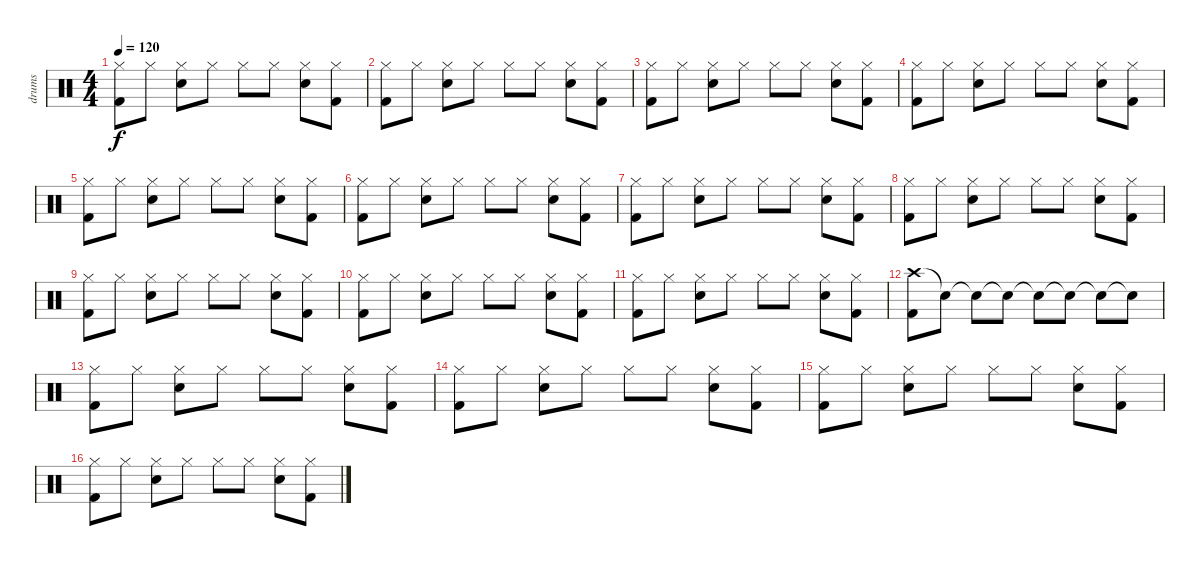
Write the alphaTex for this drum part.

\track ("drums" "drums") {instrument percussion}
\staff {score}
\articulation defaults
\ts (4 4)
\tempo 120
\clef neutral
\ks c
("Kick (hit) 2" "Hi-Hat (closed)").8{dy f} "Hi-Hat (closed)".8 ("Hi-Hat (closed)" "Snare (hit) 2").8 "Hi-Hat (closed)".8 "Hi-Hat (closed)".8 "Hi-Hat (closed)".8 ("Snare (hit) 2" "Hi-Hat (closed)").8 ("Hi-Hat (closed)" "Kick (hit) 2").8 |
("Kick (hit) 2" "Hi-Hat (closed)").8 "Hi-Hat (closed)".8 ("Hi-Hat (closed)" "Snare (hit) 2").8 "Hi-Hat (closed)".8 "Hi-Hat (closed)".8 "Hi-Hat (closed)".8 ("Snare (hit) 2" "Hi-Hat (closed)").8 ("Hi-Hat (closed)" "Kick (hit) 2").8 |
("Kick (hit) 2" "Hi-Hat (closed)").8 "Hi-Hat (closed)".8 ("Hi-Hat (closed)" "Snare (hit) 2").8 "Hi-Hat (closed)".8 "Hi-Hat (closed)".8 "Hi-Hat (closed)".8 ("Snare (hit) 2" "Hi-Hat (closed)").8 ("Hi-Hat (closed)" "Kick (hit) 2").8 |
("Kick (hit) 2" "Hi-Hat (closed)").8 "Hi-Hat (closed)".8 ("Hi-Hat (closed)" "Snare (hit) 2").8 "Hi-Hat (closed)".8 "Hi-Hat (closed)".8 "Hi-Hat (closed)".8 ("Snare (hit) 2" "Hi-Hat (closed)").8 ("Hi-Hat (closed)" "Kick (hit) 2").8 |
("Kick (hit) 2" "Hi-Hat (closed)").8 "Hi-Hat (closed)".8 ("Hi-Hat (closed)" "Snare (hit) 2").8 "Hi-Hat (closed)".8 "Hi-Hat (closed)".8 "Hi-Hat (closed)".8 ("Snare (hit) 2" "Hi-Hat (closed)").8 ("Hi-Hat (closed)" "Kick (hit) 2").8 |
("Kick (hit) 2" "Hi-Hat (closed)").8 "Hi-Hat (closed)".8 ("Hi-Hat (closed)" "Snare (hit) 2").8 "Hi-Hat (closed)".8 "Hi-Hat (closed)".8 "Hi-Hat (closed)".8 ("Snare (hit) 2" "Hi-Hat (closed)").8 ("Hi-Hat (closed)" "Kick (hit) 2").8 |
("Kick (hit) 2" "Hi-Hat (closed)").8 "Hi-Hat (closed)".8 ("Hi-Hat (closed)" "Snare (hit) 2").8 "Hi-Hat (closed)".8 "Hi-Hat (closed)".8 "Hi-Hat (closed)".8 ("Snare (hit) 2" "Hi-Hat (closed)").8 ("Hi-Hat (closed)" "Kick (hit) 2").8 |
("Kick (hit) 2" "Hi-Hat (closed)").8 "Hi-Hat (closed)".8 ("Hi-Hat (closed)" "Snare (hit) 2").8 "Hi-Hat (closed)".8 "Hi-Hat (closed)".8 "Hi-Hat (closed)".8 ("Snare (hit) 2" "Hi-Hat (closed)").8 ("Hi-Hat (closed)" "Kick (hit) 2").8 |
("Kick (hit) 2" "Hi-Hat (closed)").8 "Hi-Hat (closed)".8 ("Hi-Hat (closed)" "Snare (hit) 2").8 "Hi-Hat (closed)".8 "Hi-Hat (closed)".8 "Hi-Hat (closed)".8 ("Snare (hit) 2" "Hi-Hat (closed)").8 ("Hi-Hat (closed)" "Kick (hit) 2").8 |
("Kick (hit) 2" "Hi-Hat (closed)").8 "Hi-Hat (closed)".8 ("Hi-Hat (closed)" "Snare (hit) 2").8 "Hi-Hat (closed)".8 "Hi-Hat (closed)".8 "Hi-Hat (closed)".8 ("Snare (hit) 2" "Hi-Hat (closed)").8 ("Hi-Hat (closed)" "Kick (hit) 2").8 |
("Kick (hit) 2" "Hi-Hat (closed)").8 "Hi-Hat (closed)".8 ("Hi-Hat (closed)" "Snare (hit) 2").8 "Hi-Hat (closed)".8 "Hi-Hat (closed)".8 "Hi-Hat (closed)".8 ("Snare (hit) 2" "Hi-Hat (closed)").8 ("Hi-Hat (closed)" "Kick (hit) 2").8 |
("Crash high (hit)" "Kick (hit) 2").8 "Snare (hit)"{t}.8 "Snare (hit)"{t}.8 "Snare (hit)"{t}.8 "Snare (hit)"{t}.8 "Snare (hit)"{t}.8 "Snare (hit)"{t}.8 "Snare (hit)"{t}.8 |
("Kick (hit) 2" "Hi-Hat (closed)").8 "Hi-Hat (closed)".8 ("Hi-Hat (closed)" "Snare (hit) 2").8 "Hi-Hat (closed)".8 "Hi-Hat (closed)".8 "Hi-Hat (closed)".8 ("Snare (hit) 2" "Hi-Hat (closed)").8 ("Hi-Hat (closed)" "Kick (hit) 2").8 |
("Kick (hit) 2" "Hi-Hat (closed)").8 "Hi-Hat (closed)".8 ("Hi-Hat (closed)" "Snare (hit) 2").8 "Hi-Hat (closed)".8 "Hi-Hat (closed)".8 "Hi-Hat (closed)".8 ("Snare (hit) 2" "Hi-Hat (closed)").8 ("Hi-Hat (closed)" "Kick (hit) 2").8 |
("Kick (hit) 2" "Hi-Hat (closed)").8 "Hi-Hat (closed)".8 ("Hi-Hat (closed)" "Snare (hit) 2").8 "Hi-Hat (closed)".8 "Hi-Hat (closed)".8 "Hi-Hat (closed)".8 ("Snare (hit) 2" "Hi-Hat (closed)").8 ("Hi-Hat (closed)" "Kick (hit) 2").8 |
("Kick (hit) 2" "Hi-Hat (closed)").8 "Hi-Hat (closed)".8 ("Hi-Hat (closed)" "Snare (hit) 2").8 "Hi-Hat (closed)".8 "Hi-Hat (closed)".8 "Hi-Hat (closed)".8 ("Snare (hit) 2" "Hi-Hat (closed)").8 ("Hi-Hat (closed)" "Kick (hit) 2").8
